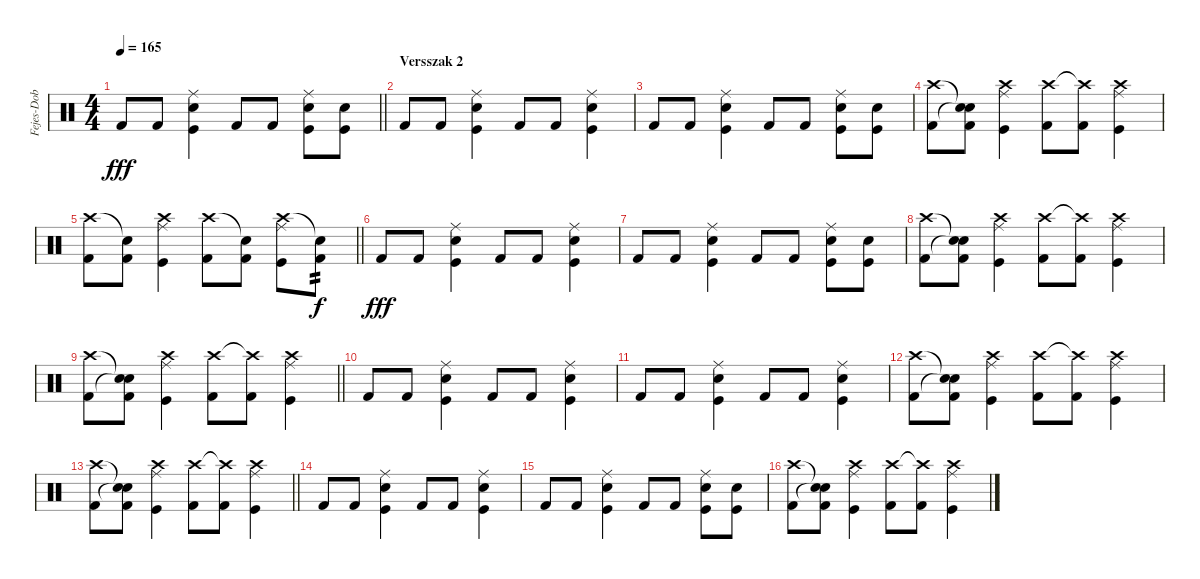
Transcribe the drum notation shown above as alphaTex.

\track ("Fejes-Dob" "Fejes-Dob") {instrument percussion}
\staff {score}
\articulation defaults
\ts (4 4)
\tempo 165
\clef neutral
\barLineRight lightlight
\ks c "Kick (hit) 2".8{dy fff} "Kick (hit) 2".8
("Ride (middle)" "Snare (hit) 2" "Kick (hit)").4 "Kick (hit) 2".8 "Kick (hit) 2".8 ("Ride (middle)" "Snare (hit) 2" "Kick (hit)").8 ("Snare (hit) 2" "Kick (hit)").8 |
\section ("" "Versszak 2")
"Kick (hit) 2".8 "Kick (hit) 2".8 ("Ride (middle)" "Snare (hit) 2" "Kick (hit)").4 "Kick (hit) 2".8 "Kick (hit) 2".8 ("Ride (middle)" "Snare (hit) 2" "Kick (hit)").4 |
"Kick (hit) 2".8 "Kick (hit) 2".8 ("Ride (middle)" "Snare (hit) 2" "Kick (hit)").4 "Kick (hit) 2".8 "Kick (hit) 2".8 ("Ride (middle)" "Snare (hit) 2" "Kick (hit)").8 ("Snare (hit) 2" "Kick (hit)").8 |
("Crash high (hit)" "Kick (hit) 2").8 ("Snare (hit)"{t} "Snare (hit)"{t} "Kick (hit) 2").8 ("Crash high (hit)" "Ride (middle)" "Kick (hit)").4 ("Crash high (hit)" "Kick (hit) 2").8 ("Crash high (hit)"{t} "Kick (hit) 2").8 ("Crash high (hit)" "Ride (middle)" "Kick (hit)").4 |
\barLineRight lightlight
("Crash high (hit)" "Kick (hit) 2").8 ("Snare (hit)"{t} "Kick (hit) 2").8 ("Crash high (hit)" "Ride (middle)" "Kick (hit)").4 ("Crash high (hit)" "Kick (hit) 2").8 ("Snare (hit)"{t} "Kick (hit) 2").8 ("Crash high (hit)" "Ride (middle)" "Kick (hit)").8 ("Snare (hit)"{t} "Kick (hit) 2").8{tp 2 dy f} |
"Kick (hit) 2".8{dy fff} "Kick (hit) 2".8 ("Ride (middle)" "Snare (hit) 2" "Kick (hit)").4 "Kick (hit) 2".8 "Kick (hit) 2".8 ("Ride (middle)" "Snare (hit) 2" "Kick (hit)").4 |
"Kick (hit) 2".8 "Kick (hit) 2".8 ("Ride (middle)" "Snare (hit) 2" "Kick (hit)").4 "Kick (hit) 2".8 "Kick (hit) 2".8 ("Ride (middle)" "Snare (hit) 2" "Kick (hit)").8 ("Snare (hit) 2" "Kick (hit)").8 |
("Crash high (hit)" "Kick (hit) 2").8 ("Snare (hit)"{t} "Snare (hit)"{t} "Kick (hit) 2").8 ("Crash high (hit)" "Ride (middle)" "Kick (hit)").4 ("Crash high (hit)" "Kick (hit) 2").8 ("Crash high (hit)"{t} "Kick (hit) 2").8 ("Crash high (hit)" "Ride (middle)" "Kick (hit)").4 |
\barLineRight lightlight
("Crash high (hit)" "Kick (hit) 2").8 ("Snare (hit)"{t} "Snare (hit)"{t} "Kick (hit) 2").8 ("Crash high (hit)" "Ride (middle)" "Kick (hit)").4 ("Crash high (hit)" "Kick (hit) 2").8 ("Crash high (hit)"{t} "Kick (hit) 2").8 ("Crash high (hit)" "Ride (middle)" "Kick (hit)").4 |
"Kick (hit) 2".8 "Kick (hit) 2".8 ("Ride (middle)" "Snare (hit) 2" "Kick (hit)").4 "Kick (hit) 2".8 "Kick (hit) 2".8 ("Ride (middle)" "Snare (hit) 2" "Kick (hit)").4 |
"Kick (hit) 2".8 "Kick (hit) 2".8 ("Ride (middle)" "Snare (hit) 2" "Kick (hit)").4 "Kick (hit) 2".8 "Kick (hit) 2".8 ("Ride (middle)" "Snare (hit) 2" "Kick (hit)").4 |
("Crash high (hit)" "Kick (hit) 2").8 ("Snare (hit)"{t} "Snare (hit)"{t} "Kick (hit) 2").8 ("Crash high (hit)" "Ride (middle)" "Kick (hit)").4 ("Crash high (hit)" "Kick (hit) 2").8 ("Crash high (hit)"{t} "Kick (hit) 2").8 ("Crash high (hit)" "Ride (middle)" "Kick (hit)").4 |
\barLineRight lightlight
("Crash high (hit)" "Kick (hit) 2").8 ("Snare (hit)"{t} "Snare (hit)"{t} "Kick (hit) 2").8 ("Crash high (hit)" "Ride (middle)" "Kick (hit)").4 ("Crash high (hit)" "Kick (hit) 2").8 ("Crash high (hit)"{t} "Kick (hit) 2").8 ("Crash high (hit)" "Ride (middle)" "Kick (hit)").4 |
"Kick (hit) 2".8 "Kick (hit) 2".8 ("Ride (middle)" "Snare (hit) 2" "Kick (hit)").4 "Kick (hit) 2".8 "Kick (hit) 2".8 ("Ride (middle)" "Snare (hit) 2" "Kick (hit)").4 |
"Kick (hit) 2".8 "Kick (hit) 2".8 ("Ride (middle)" "Snare (hit) 2" "Kick (hit)").4 "Kick (hit) 2".8 "Kick (hit) 2".8 ("Ride (middle)" "Snare (hit) 2" "Kick (hit)").8 ("Snare (hit) 2" "Kick (hit)").8 |
("Crash high (hit)" "Kick (hit) 2").8 ("Snare (hit)"{t} "Snare (hit)"{t} "Kick (hit) 2").8 ("Crash high (hit)" "Ride (middle)" "Kick (hit)").4 ("Crash high (hit)" "Kick (hit) 2").8 ("Crash high (hit)"{t} "Kick (hit) 2").8 ("Crash high (hit)" "Ride (middle)" "Kick (hit)").4
